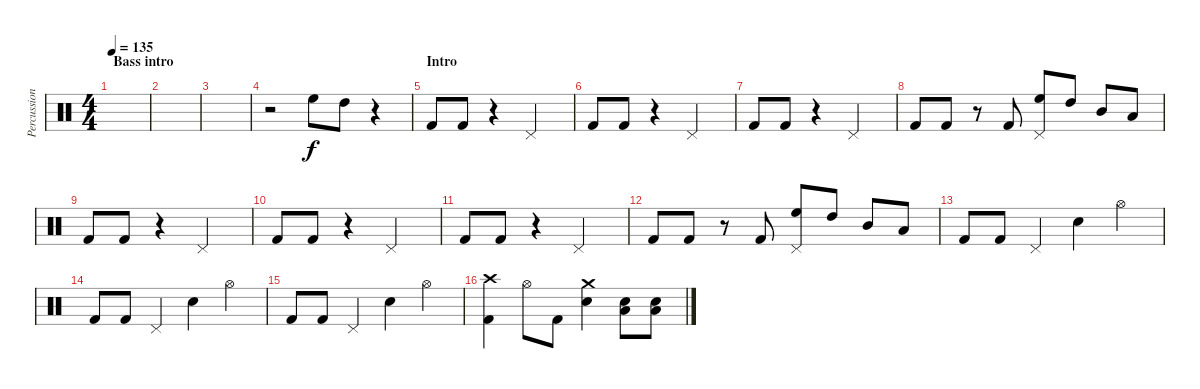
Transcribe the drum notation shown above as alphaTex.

\track ("Percussion" "Percussion") {instrument percussion}
\staff {score}
\articulation defaults
\ts (4 4)
\section ("" "Bass intro")
\tempo 135
\clef neutral
\ks c
|
|
|
r.2 "High Floor Tom (hit)".8 "High Tom (hit)".8 r.4 |
\section ("" "Intro")
"Kick (hit) 2".8 "Kick (hit) 2".8 r.4 "Pedal Hi-Hat (hit)".2 |
"Kick (hit) 2".8 "Kick (hit) 2".8 r.4 "Pedal Hi-Hat (hit)".2 |
"Kick (hit) 2".8 "Kick (hit) 2".8 r.4 "Pedal Hi-Hat (hit)".2 |
"Kick (hit) 2".8 "Kick (hit) 2".8 r.8 "Kick (hit) 2".8 ("High Floor Tom (hit)" "Pedal Hi-Hat (hit)").8 "High Tom (hit)".8 "Mid Tom (hit)".8 "Low Tom (hit)".8 |
"Kick (hit) 2".8 "Kick (hit) 2".8 r.4 "Pedal Hi-Hat (hit)".2 |
"Kick (hit) 2".8 "Kick (hit) 2".8 r.4 "Pedal Hi-Hat (hit)".2 |
"Kick (hit) 2".8 "Kick (hit) 2".8 r.4 "Pedal Hi-Hat (hit)".2 |
"Kick (hit) 2".8 "Kick (hit) 2".8 r.8 "Kick (hit) 2".8 ("High Floor Tom (hit)" "Pedal Hi-Hat (hit)").8 "High Tom (hit)".8 "Mid Tom (hit)".8 "Low Tom (hit)".8 |
"Kick (hit) 2".8 "Kick (hit) 2".8 "Pedal Hi-Hat (hit)".4 "Electric Snare (hit)".4 "Hi-Hat (open)".4 |
"Kick (hit) 2".8 "Kick (hit) 2".8 "Pedal Hi-Hat (hit)".4 "Electric Snare (hit)".4 "Hi-Hat (open)".4 |
"Kick (hit) 2".8 "Kick (hit) 2".8 "Pedal Hi-Hat (hit)".4 "Electric Snare (hit)".4 "Hi-Hat (open)".4 |
("Kick (hit) 2" "Crash high (hit)").4 "Hi-Hat (open)".8 "Kick (hit) 2".8 ("Electric Snare (hit)" "Crash medium (hit)").4 ("Electric Snare (hit)" "Low Tom (hit)").8 ("Electric Snare (hit)" "Low Tom (hit)").8
